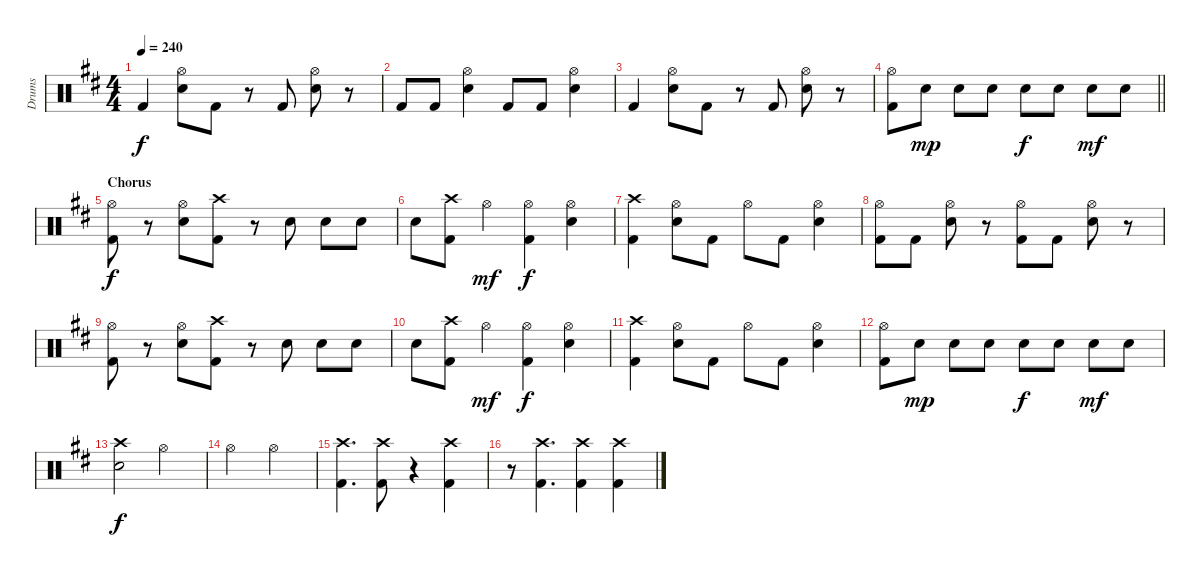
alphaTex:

\track ("Drums" "Drums") {instrument percussion}
\staff {score}
\articulation defaults
\ts (4 4)
\tempo 240
\clef neutral
\ks d "Kick (hit) 2".4{dy f}
("Hi-Hat (open)" "Electric Snare (hit)").8 "Kick (hit) 2".8 r.8 "Kick (hit) 2".8 ("Hi-Hat (open)" "Electric Snare (hit)").8 r.8 |
"Kick (hit) 2".8 "Kick (hit) 2".8 ("Hi-Hat (open)" "Electric Snare (hit)").4 "Kick (hit) 2".8 "Kick (hit) 2".8 ("Hi-Hat (open)" "Electric Snare (hit)").4 |
"Kick (hit) 2".4 ("Hi-Hat (open)" "Electric Snare (hit)").8 "Kick (hit) 2".8 r.8 "Kick (hit) 2".8 ("Hi-Hat (open)" "Electric Snare (hit)").8 r.8 |
\barLineRight lightlight
("Hi-Hat (open)" "Kick (hit) 2").8 "Electric Snare (hit)".8{dy mp} "Electric Snare (hit)".8 "Electric Snare (hit)".8 "Electric Snare (hit)".8{dy f} "Electric Snare (hit)".8 "Electric Snare (hit)".8{dy mf} "Electric Snare (hit)".8 |
\section ("" "Chorus")
("Hi-Hat (open)" "Kick (hit) 2").8{dy f} r.8 ("Hi-Hat (open)" "Electric Snare (hit)").8 ("Crash high (hit)" "Kick (hit) 2").8 r.8 "Electric Snare (hit)".8 "Electric Snare (hit)".8 "Electric Snare (hit)".8 |
"Electric Snare (hit)".8 ("Crash high (hit)" "Kick (hit) 2").8 "Hi-Hat (open)".4{dy mf} ("Hi-Hat (open)" "Kick (hit) 2").4{dy f} ("Hi-Hat (open)" "Electric Snare (hit)").4 |
("Crash high (hit)" "Kick (hit) 2").4 ("Hi-Hat (open)" "Electric Snare (hit)").8 "Kick (hit) 2".8 "Hi-Hat (open)".8 "Kick (hit) 2".8 ("Hi-Hat (open)" "Electric Snare (hit)").4 |
("Hi-Hat (open)" "Kick (hit) 2").8 "Kick (hit) 2".8 ("Hi-Hat (open)" "Electric Snare (hit)").8 r.8 ("Hi-Hat (open)" "Kick (hit) 2").8 "Kick (hit) 2".8 ("Hi-Hat (open)" "Electric Snare (hit)").8 r.8 |
("Hi-Hat (open)" "Kick (hit) 2").8 r.8 ("Hi-Hat (open)" "Electric Snare (hit)").8 ("Crash high (hit)" "Kick (hit) 2").8 r.8 "Electric Snare (hit)".8 "Electric Snare (hit)".8 "Electric Snare (hit)".8 |
"Electric Snare (hit)".8 ("Crash high (hit)" "Kick (hit) 2").8 "Hi-Hat (open)".4{dy mf} ("Hi-Hat (open)" "Kick (hit) 2").4{dy f} ("Hi-Hat (open)" "Electric Snare (hit)").4 |
("Crash high (hit)" "Kick (hit) 2").4 ("Hi-Hat (open)" "Electric Snare (hit)").8 "Kick (hit) 2".8 "Hi-Hat (open)".8 "Kick (hit) 2".8 ("Hi-Hat (open)" "Electric Snare (hit)").4 |
("Hi-Hat (open)" "Kick (hit) 2").8 "Electric Snare (hit)".8{dy mp} "Electric Snare (hit)".8 "Electric Snare (hit)".8 "Electric Snare (hit)".8{dy f} "Electric Snare (hit)".8 "Electric Snare (hit)".8{dy mf} "Electric Snare (hit)".8 |
("Crash high (hit)" "Hand Clap (hit)").2{dy f} "Hi-Hat (open)".2 |
"Hi-Hat (open)".2 "Hi-Hat (open)".2 |
("Crash high (hit)" "Kick (hit) 2").4{d} ("Crash high (hit)" "Kick (hit) 2").8 r.4 ("Crash high (hit)" "Kick (hit) 2").4 |
r.8 ("Crash high (hit)" "Kick (hit) 2").4{d} ("Crash high (hit)" "Kick (hit) 2").4 ("Crash high (hit)" "Kick (hit) 2").4
